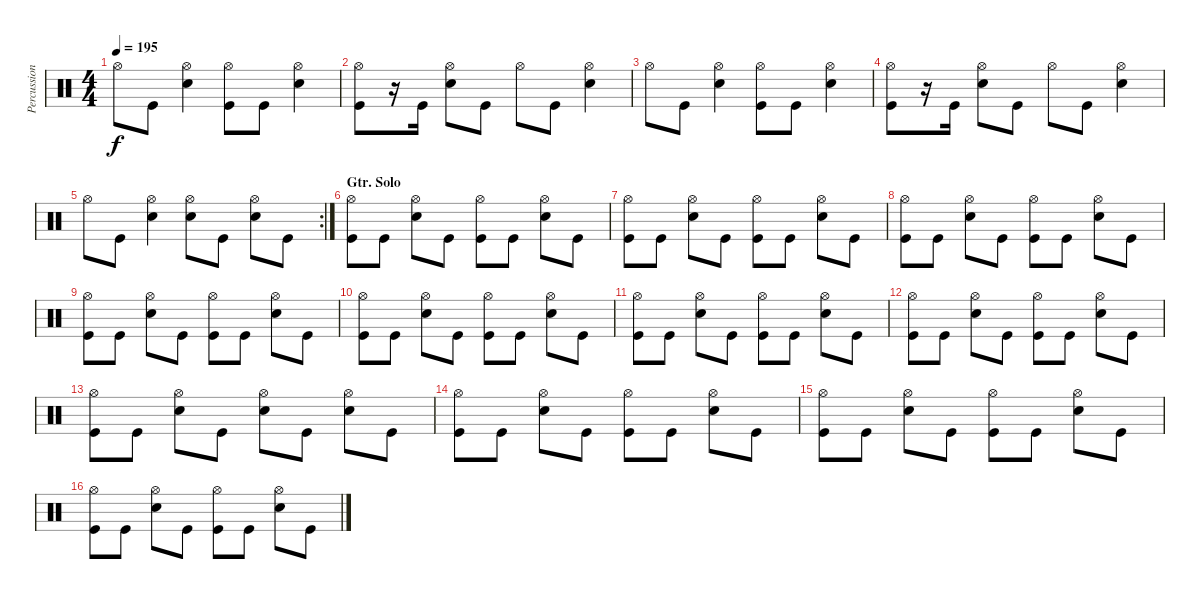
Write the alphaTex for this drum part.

\track ("Percussion" "Percussion") {instrument percussion}
\staff {score}
\articulation defaults
\ts (4 4)
\tempo 195
\clef neutral
\ks c "Hi-Hat (open)".8{dy f} "Kick (hit)".8
("Hi-Hat (open)" "Snare (hit) 2").4 ("Hi-Hat (open)" "Kick (hit)").8 "Kick (hit)".8 ("Hi-Hat (open)" "Snare (hit) 2").4 |
("Hi-Hat (open)" "Kick (hit)").8 r.16 "Kick (hit)".16 ("Hi-Hat (open)" "Snare (hit) 2").8 "Kick (hit)".8 "Hi-Hat (open)".8 "Kick (hit)".8 ("Hi-Hat (open)" "Snare (hit) 2").4 |
"Hi-Hat (open)".8 "Kick (hit)".8 ("Hi-Hat (open)" "Snare (hit) 2").4 ("Hi-Hat (open)" "Kick (hit)").8 "Kick (hit)".8 ("Hi-Hat (open)" "Snare (hit) 2").4 |
("Hi-Hat (open)" "Kick (hit)").8 r.16 "Kick (hit)".16 ("Hi-Hat (open)" "Snare (hit) 2").8 "Kick (hit)".8 "Hi-Hat (open)".8 "Kick (hit)".8 ("Hi-Hat (open)" "Snare (hit) 2").4 |
\rc 2 "Hi-Hat (open)".8 "Kick (hit)".8
("Hi-Hat (open)" "Snare (hit) 2").4 ("Hi-Hat (open)" "Snare (hit) 2").8 "Kick (hit)".8 ("Hi-Hat (open)" "Snare (hit) 2").8 "Kick (hit)".8 |
\section ("" "Gtr. Solo")
("Hi-Hat (open)" "Kick (hit)").8 "Kick (hit)".8 ("Hi-Hat (open)" "Snare (hit) 2").8 "Kick (hit)".8 ("Hi-Hat (open)" "Kick (hit)").8 "Kick (hit)".8 ("Hi-Hat (open)" "Snare (hit) 2").8 "Kick (hit)".8 |
("Hi-Hat (open)" "Kick (hit)").8 "Kick (hit)".8 ("Hi-Hat (open)" "Snare (hit) 2").8 "Kick (hit)".8 ("Hi-Hat (open)" "Kick (hit)").8 "Kick (hit)".8 ("Hi-Hat (open)" "Snare (hit) 2").8 "Kick (hit)".8 |
("Hi-Hat (open)" "Kick (hit)").8 "Kick (hit)".8 ("Hi-Hat (open)" "Snare (hit) 2").8 "Kick (hit)".8 ("Hi-Hat (open)" "Kick (hit)").8 "Kick (hit)".8 ("Hi-Hat (open)" "Snare (hit) 2").8 "Kick (hit)".8 |
("Hi-Hat (open)" "Kick (hit)").8 "Kick (hit)".8 ("Hi-Hat (open)" "Snare (hit) 2").8 "Kick (hit)".8 ("Hi-Hat (open)" "Kick (hit)").8 "Kick (hit)".8 ("Hi-Hat (open)" "Snare (hit) 2").8 "Kick (hit)".8 |
("Hi-Hat (open)" "Kick (hit)").8 "Kick (hit)".8 ("Hi-Hat (open)" "Snare (hit) 2").8 "Kick (hit)".8 ("Hi-Hat (open)" "Kick (hit)").8 "Kick (hit)".8 ("Hi-Hat (open)" "Snare (hit) 2").8 "Kick (hit)".8 |
("Hi-Hat (open)" "Kick (hit)").8 "Kick (hit)".8 ("Hi-Hat (open)" "Snare (hit) 2").8 "Kick (hit)".8 ("Hi-Hat (open)" "Kick (hit)").8 "Kick (hit)".8 ("Hi-Hat (open)" "Snare (hit) 2").8 "Kick (hit)".8 |
("Hi-Hat (open)" "Kick (hit)").8 "Kick (hit)".8 ("Hi-Hat (open)" "Snare (hit) 2").8 "Kick (hit)".8 ("Hi-Hat (open)" "Kick (hit)").8 "Kick (hit)".8 ("Hi-Hat (open)" "Snare (hit) 2").8 "Kick (hit)".8 |
("Hi-Hat (open)" "Kick (hit)").8 "Kick (hit)".8 ("Hi-Hat (open)" "Snare (hit) 2").8 "Kick (hit)".8 ("Hi-Hat (open)" "Snare (hit) 2").8 "Kick (hit)".8 ("Hi-Hat (open)" "Snare (hit) 2").8 "Kick (hit)".8 |
("Hi-Hat (open)" "Kick (hit)").8 "Kick (hit)".8 ("Hi-Hat (open)" "Snare (hit) 2").8 "Kick (hit)".8 ("Hi-Hat (open)" "Kick (hit)").8 "Kick (hit)".8 ("Hi-Hat (open)" "Snare (hit) 2").8 "Kick (hit)".8 |
("Hi-Hat (open)" "Kick (hit)").8 "Kick (hit)".8 ("Hi-Hat (open)" "Snare (hit) 2").8 "Kick (hit)".8 ("Hi-Hat (open)" "Kick (hit)").8 "Kick (hit)".8 ("Hi-Hat (open)" "Snare (hit) 2").8 "Kick (hit)".8 |
("Hi-Hat (open)" "Kick (hit)").8 "Kick (hit)".8 ("Hi-Hat (open)" "Snare (hit) 2").8 "Kick (hit)".8 ("Hi-Hat (open)" "Kick (hit)").8 "Kick (hit)".8 ("Hi-Hat (open)" "Snare (hit) 2").8 "Kick (hit)".8
